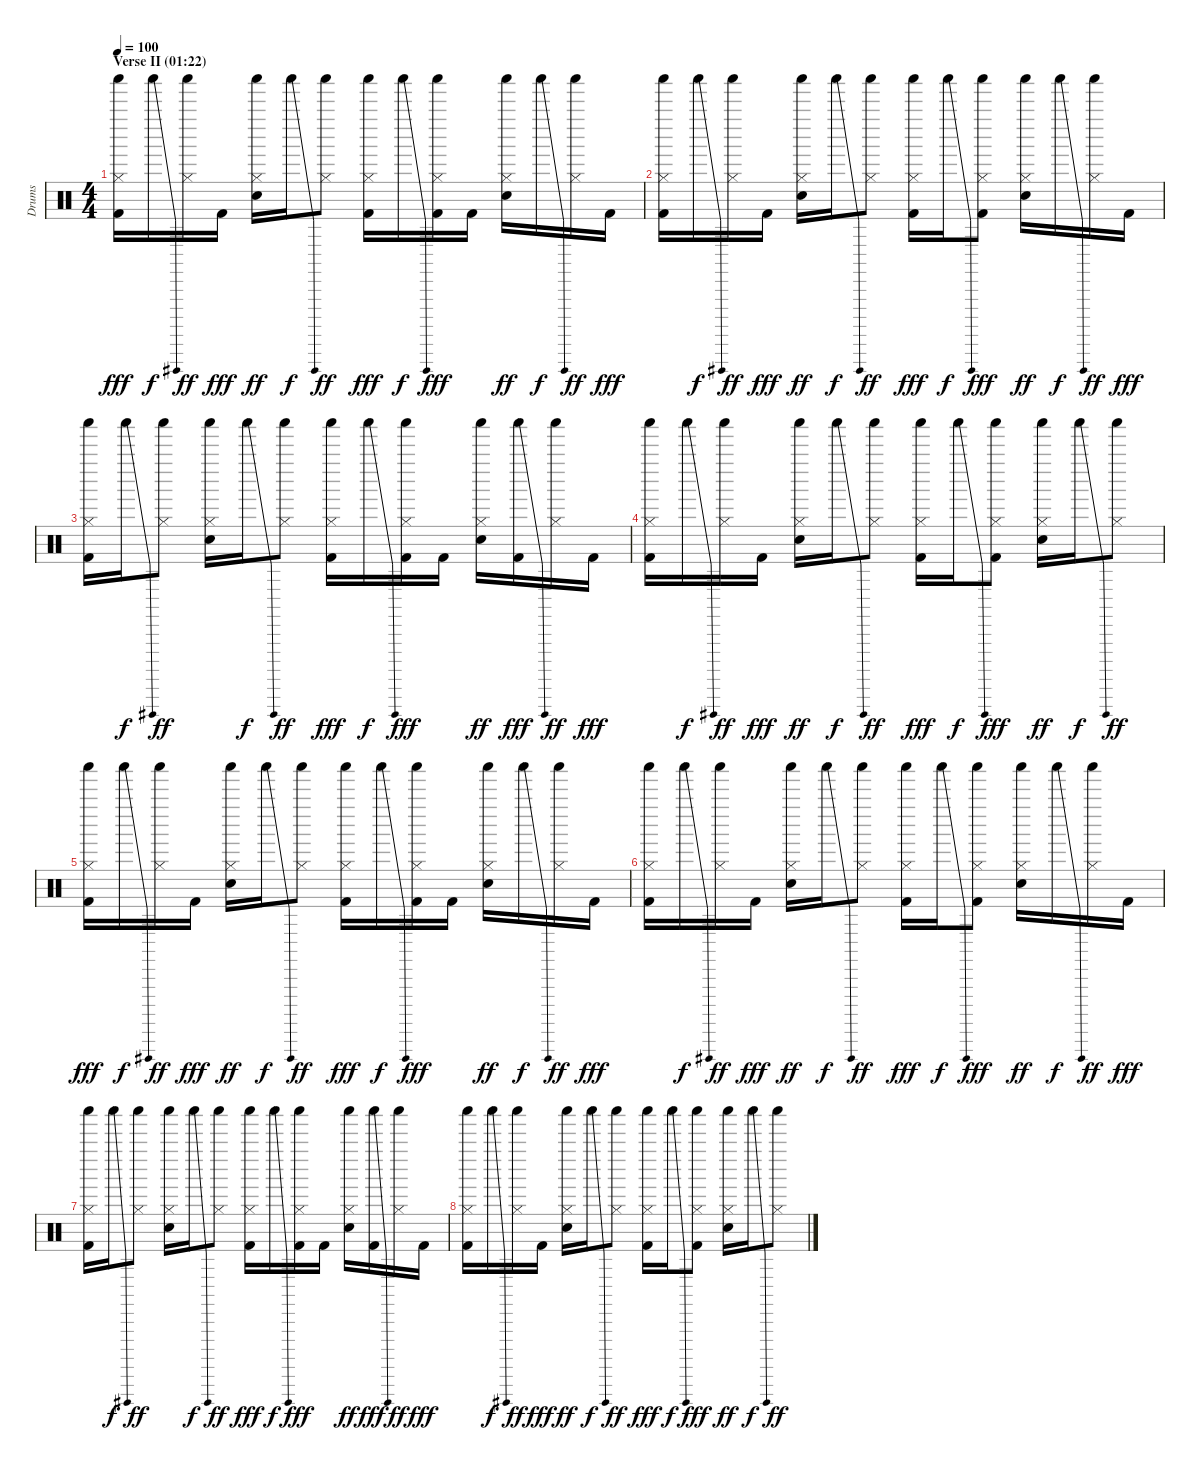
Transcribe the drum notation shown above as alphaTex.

\track ("Drums" "Drums") {instrument percussion}
\staff {score}
\articulation defaults
\ts (4 4)
\section ("" "Verse II (01:22)")
\tempo 100
\clef neutral
\ks c
("Shaker (hit)" "Hi-Hat (closed)" "Kick (hit) 2").16{dy fff} "Shaker (hit)"{be (bend 0 0 60 12)}.16{dy f} ("Shaker (hit)" "Hi-Hat (closed)").16{dy ff} "Kick (hit) 2".16{dy fff} ("Shaker (hit)" "Hi-Hat (closed)" "Electric Snare (hit)").16{dy ff} "Shaker (hit)"{be (bend 0 0 60 12)}.16{dy f} ("Shaker (hit)" "Hi-Hat (closed)").8{dy ff} ("Shaker (hit)" "Hi-Hat (closed)" "Kick (hit) 2").16{dy fff} "Shaker (hit)"{be (bend 0 0 60 12)}.16{dy f} ("Shaker (hit)" "Hi-Hat (closed)" "Kick (hit) 2").16{dy fff} "Kick (hit) 2".16 ("Shaker (hit)" "Hi-Hat (closed)" "Electric Snare (hit)").16{dy ff} "Shaker (hit)"{be (bend 0 0 60 12)}.16{dy f} ("Shaker (hit)" "Hi-Hat (closed)").16{dy ff} "Kick (hit) 2".16{dy fff} |
("Shaker (hit)" "Hi-Hat (closed)" "Kick (hit) 2").16 "Shaker (hit)"{be (bend 0 0 60 12)}.16{dy f} ("Shaker (hit)" "Hi-Hat (closed)").16{dy ff} "Kick (hit) 2".16{dy fff} ("Shaker (hit)" "Hi-Hat (closed)" "Electric Snare (hit)").16{dy ff} "Shaker (hit)"{be (bend 0 0 60 12)}.16{dy f} ("Shaker (hit)" "Hi-Hat (closed)").8{dy ff} ("Shaker (hit)" "Hi-Hat (closed)" "Kick (hit) 2").16{dy fff} "Shaker (hit)"{be (bend 0 0 60 12)}.16{dy f} ("Shaker (hit)" "Hi-Hat (closed)" "Kick (hit) 2").8{dy fff} ("Shaker (hit)" "Hi-Hat (closed)" "Electric Snare (hit)").16{dy ff} "Shaker (hit)"{be (bend 0 0 60 12)}.16{dy f} ("Shaker (hit)" "Hi-Hat (closed)").16{dy ff} "Kick (hit) 2".16{dy fff} |
("Shaker (hit)" "Hi-Hat (closed)" "Kick (hit) 2").16 "Shaker (hit)"{be (bend 0 0 60 12)}.16{dy f} ("Shaker (hit)" "Hi-Hat (closed)").8{dy ff} ("Shaker (hit)" "Hi-Hat (closed)" "Electric Snare (hit)").16 "Shaker (hit)"{be (bend 0 0 60 12)}.16{dy f} ("Shaker (hit)" "Hi-Hat (closed)").8{dy ff} ("Shaker (hit)" "Hi-Hat (closed)" "Kick (hit) 2").16{dy fff} "Shaker (hit)"{be (bend 0 0 60 12)}.16{dy f} ("Shaker (hit)" "Hi-Hat (closed)" "Kick (hit) 2").16{dy fff} "Kick (hit) 2".16 ("Shaker (hit)" "Hi-Hat (closed)" "Electric Snare (hit)").16{dy ff} ("Shaker (hit)"{be (bend 0 0 60 12)} "Kick (hit) 2").16{dy fff} ("Shaker (hit)" "Hi-Hat (closed)").16{dy ff} "Kick (hit) 2".16{dy fff} |
("Shaker (hit)" "Hi-Hat (closed)" "Kick (hit) 2").16 "Shaker (hit)"{be (bend 0 0 60 12)}.16{dy f} ("Shaker (hit)" "Hi-Hat (closed)").16{dy ff} "Kick (hit) 2".16{dy fff} ("Shaker (hit)" "Hi-Hat (closed)" "Electric Snare (hit)").16{dy ff} "Shaker (hit)"{be (bend 0 0 60 12)}.16{dy f} ("Shaker (hit)" "Hi-Hat (closed)").8{dy ff} ("Shaker (hit)" "Hi-Hat (closed)" "Kick (hit) 2").16{dy fff} "Shaker (hit)"{be (bend 0 0 60 12)}.16{dy f} ("Shaker (hit)" "Hi-Hat (closed)" "Kick (hit) 2").8{dy fff} ("Shaker (hit)" "Hi-Hat (closed)" "Electric Snare (hit)").16{dy ff} "Shaker (hit)"{be (bend 0 0 60 12)}.16{dy f} ("Shaker (hit)" "Hi-Hat (closed)").8{dy ff} |
("Shaker (hit)" "Hi-Hat (closed)" "Kick (hit) 2").16{dy fff} "Shaker (hit)"{be (bend 0 0 60 12)}.16{dy f} ("Shaker (hit)" "Hi-Hat (closed)").16{dy ff} "Kick (hit) 2".16{dy fff} ("Shaker (hit)" "Hi-Hat (closed)" "Electric Snare (hit)").16{dy ff} "Shaker (hit)"{be (bend 0 0 60 12)}.16{dy f} ("Shaker (hit)" "Hi-Hat (closed)").8{dy ff} ("Shaker (hit)" "Hi-Hat (closed)" "Kick (hit) 2").16{dy fff} "Shaker (hit)"{be (bend 0 0 60 12)}.16{dy f} ("Shaker (hit)" "Hi-Hat (closed)" "Kick (hit) 2").16{dy fff} "Kick (hit) 2".16 ("Shaker (hit)" "Hi-Hat (closed)" "Electric Snare (hit)").16{dy ff} "Shaker (hit)"{be (bend 0 0 60 12)}.16{dy f} ("Shaker (hit)" "Hi-Hat (closed)").16{dy ff} "Kick (hit) 2".16{dy fff} |
("Shaker (hit)" "Hi-Hat (closed)" "Kick (hit) 2").16 "Shaker (hit)"{be (bend 0 0 60 12)}.16{dy f} ("Shaker (hit)" "Hi-Hat (closed)").16{dy ff} "Kick (hit) 2".16{dy fff} ("Shaker (hit)" "Hi-Hat (closed)" "Electric Snare (hit)").16{dy ff} "Shaker (hit)"{be (bend 0 0 60 12)}.16{dy f} ("Shaker (hit)" "Hi-Hat (closed)").8{dy ff} ("Shaker (hit)" "Hi-Hat (closed)" "Kick (hit) 2").16{dy fff} "Shaker (hit)"{be (bend 0 0 60 12)}.16{dy f} ("Shaker (hit)" "Hi-Hat (closed)" "Kick (hit) 2").8{dy fff} ("Shaker (hit)" "Hi-Hat (closed)" "Electric Snare (hit)").16{dy ff} "Shaker (hit)"{be (bend 0 0 60 12)}.16{dy f} ("Shaker (hit)" "Hi-Hat (closed)").16{dy ff} "Kick (hit) 2".16{dy fff} |
("Shaker (hit)" "Hi-Hat (closed)" "Kick (hit) 2").16 "Shaker (hit)"{be (bend 0 0 60 12)}.16{dy f} ("Shaker (hit)" "Hi-Hat (closed)").8{dy ff} ("Shaker (hit)" "Hi-Hat (closed)" "Electric Snare (hit)").16 "Shaker (hit)"{be (bend 0 0 60 12)}.16{dy f} ("Shaker (hit)" "Hi-Hat (closed)").8{dy ff} ("Shaker (hit)" "Hi-Hat (closed)" "Kick (hit) 2").16{dy fff} "Shaker (hit)"{be (bend 0 0 60 12)}.16{dy f} ("Shaker (hit)" "Hi-Hat (closed)" "Kick (hit) 2").16{dy fff} "Kick (hit) 2".16 ("Shaker (hit)" "Hi-Hat (closed)" "Electric Snare (hit)").16{dy ff} ("Shaker (hit)"{be (bend 0 0 60 12)} "Kick (hit) 2").16{dy fff} ("Shaker (hit)" "Hi-Hat (closed)").16{dy ff} "Kick (hit) 2".16{dy fff} |
("Shaker (hit)" "Hi-Hat (closed)" "Kick (hit) 2").16 "Shaker (hit)"{be (bend 0 0 60 12)}.16{dy f} ("Shaker (hit)" "Hi-Hat (closed)").16{dy ff} "Kick (hit) 2".16{dy fff} ("Shaker (hit)" "Hi-Hat (closed)" "Electric Snare (hit)").16{dy ff} "Shaker (hit)"{be (bend 0 0 60 12)}.16{dy f} ("Shaker (hit)" "Hi-Hat (closed)").8{dy ff} ("Shaker (hit)" "Hi-Hat (closed)" "Kick (hit) 2").16{dy fff} "Shaker (hit)"{be (bend 0 0 60 12)}.16{dy f} ("Shaker (hit)" "Hi-Hat (closed)" "Kick (hit) 2").8{dy fff} ("Shaker (hit)" "Hi-Hat (closed)" "Electric Snare (hit)").16{dy ff} "Shaker (hit)"{be (bend 0 0 60 12)}.16{dy f} ("Shaker (hit)" "Hi-Hat (closed)").8{dy ff}
